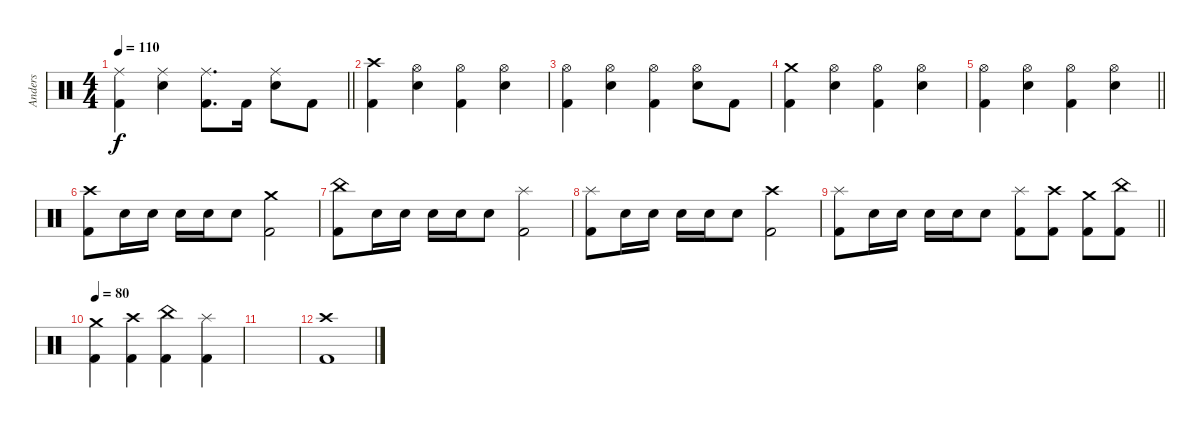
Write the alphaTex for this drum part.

\track ("Anders" "Anders") {instrument percussion}
\staff {score}
\articulation defaults
\ts (4 4)
\tempo 110
\clef neutral
\barLineRight lightlight
\ks c
("Ride (middle)" "Kick (hit) 2").4{dy f} ("Ride (middle)" "Snare (hit) 2").4 ("Ride (middle)" "Kick (hit) 2").8{d} "Kick (hit) 2".16 ("Ride (middle)" "Snare (hit) 2").8 "Kick (hit) 2".8 |
("Crash high (hit)" "Kick (hit) 2").4 ("Hi-Hat (open)" "Snare (hit) 2").4 ("Hi-Hat (open)" "Kick (hit) 2").4 ("Hi-Hat (open)" "Snare (hit) 2").4 |
("Hi-Hat (open)" "Kick (hit) 2").4 ("Hi-Hat (open)" "Snare (hit) 2").4 ("Hi-Hat (open)" "Kick (hit) 2").4 ("Hi-Hat (open)" "Snare (hit) 2").8 "Kick (hit) 2".8 |
("Crash medium (hit)" "Kick (hit) 2").4 ("Hi-Hat (open)" "Snare (hit) 2").4 ("Hi-Hat (open)" "Kick (hit) 2").4 ("Hi-Hat (open)" "Snare (hit) 2").4 |
\barLineRight lightlight
("Hi-Hat (open)" "Kick (hit) 2").4 ("Hi-Hat (open)" "Snare (hit) 2").4 ("Hi-Hat (open)" "Kick (hit) 2").4 ("Hi-Hat (open)" "Snare (hit) 2").4 |
("Crash high (hit)" "Kick (hit) 2").8 "Snare (hit) 2".16 "Snare (hit) 2".16 "Snare (hit) 2".16 "Snare (hit) 2".16 "Snare (hit) 2".8 ("Crash medium (hit)" "Kick (hit) 2").2 |
("China (hit)" "Kick (hit) 2").8 "Snare (hit) 2".16 "Snare (hit) 2".16 "Snare (hit) 2".16 "Snare (hit) 2".16 "Snare (hit) 2".8 ("Splash (hit)" "Kick (hit) 2").2 |
("Splash (hit)" "Kick (hit) 2").8 "Snare (hit) 2".16 "Snare (hit) 2".16 "Snare (hit) 2".16 "Snare (hit) 2".16 "Snare (hit) 2".8 ("Crash high (hit)" "Kick (hit) 2").2 |
\barLineRight lightlight
("Splash (hit)" "Kick (hit) 2").8 "Snare (hit) 2".16 "Snare (hit) 2".16 "Snare (hit) 2".16 "Snare (hit) 2".16 "Snare (hit) 2".8 ("Splash (hit)" "Kick (hit) 2").8 ("Crash high (hit)" "Kick (hit) 2").8 ("Crash medium (hit)" "Kick (hit) 2").8 ("China (hit)" "Kick (hit) 2").8 |
\tempo 80
("Crash medium (hit)" "Kick (hit) 2").4 ("Crash high (hit)" "Kick (hit) 2").4 ("China (hit)" "Kick (hit) 2").4 ("Splash (hit)" "Kick (hit) 2").4 |
|
("Crash high (hit)" "Kick (hit) 2").1
